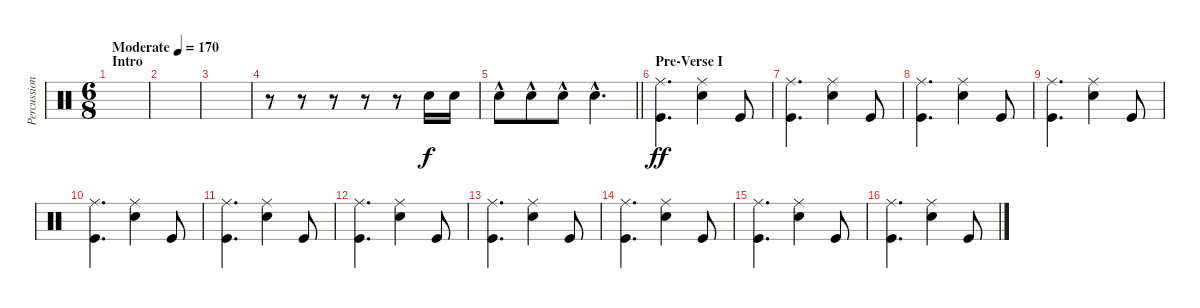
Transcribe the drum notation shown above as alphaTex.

\track ("Percussion" "Percussion") {instrument percussion}
\staff {score}
\articulation defaults
\ts (6 8)
\section ("" "Intro")
\tempo (170 "Moderate")
\clef neutral
\ks c
|
|
|
r.8 r.8 r.8 r.8 r.8 "Snare (hit) 2".16 "Snare (hit) 2".16 |
\barLineRight lightlight "Snare (hit) 2"{hac}.8 "Snare (hit) 2"{hac}.8 "Snare (hit) 2"{hac}.8 "Snare (hit) 2"{hac}.4{d}
|
\section ("" "Pre-Verse I")
("Ride (middle)" "Kick (hit)").4{d dy ff} ("Ride (middle)" "Snare (hit) 2").4 "Kick (hit)".8 |
("Ride (middle)" "Kick (hit)").4{d} ("Ride (middle)" "Snare (hit) 2").4 "Kick (hit)".8 |
("Ride (middle)" "Kick (hit)").4{d} ("Ride (middle)" "Snare (hit) 2").4 "Kick (hit)".8 |
("Ride (middle)" "Kick (hit)").4{d} ("Ride (middle)" "Snare (hit) 2").4 "Kick (hit)".8 |
("Ride (middle)" "Kick (hit)").4{d} ("Ride (middle)" "Snare (hit) 2").4 "Kick (hit)".8 |
("Ride (middle)" "Kick (hit)").4{d} ("Ride (middle)" "Snare (hit) 2").4 "Kick (hit)".8 |
("Ride (middle)" "Kick (hit)").4{d} ("Ride (middle)" "Snare (hit) 2").4 "Kick (hit)".8 |
("Ride (middle)" "Kick (hit)").4{d} ("Ride (middle)" "Snare (hit) 2").4 "Kick (hit)".8 |
("Ride (middle)" "Kick (hit)").4{d} ("Ride (middle)" "Snare (hit) 2").4 "Kick (hit)".8 |
("Ride (middle)" "Kick (hit)").4{d} ("Ride (middle)" "Snare (hit) 2").4 "Kick (hit)".8 |
("Ride (middle)" "Kick (hit)").4{d} ("Ride (middle)" "Snare (hit) 2").4 "Kick (hit)".8
